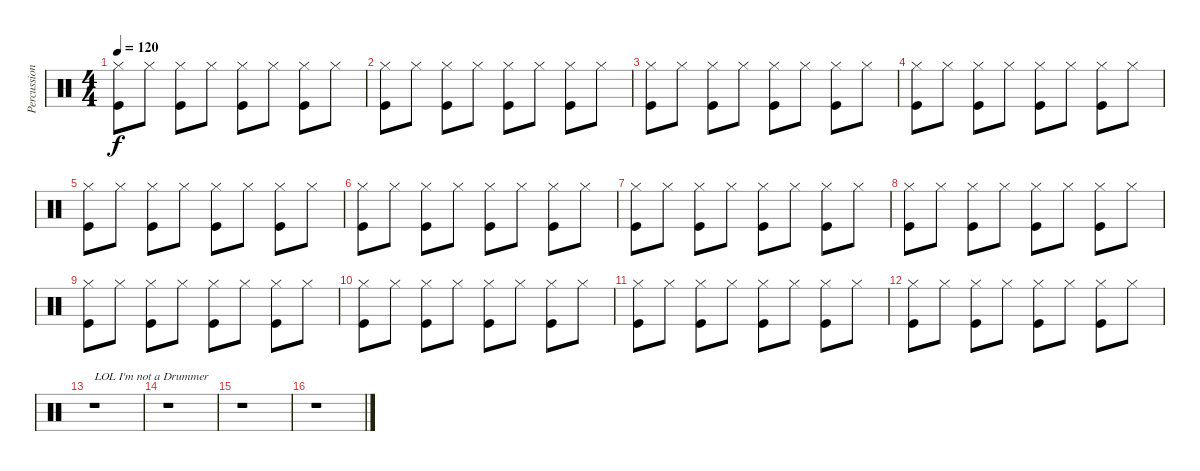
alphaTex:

\track ("Percussion" "Percussion") {instrument percussion}
\staff {score}
\articulation defaults
\ts (4 4)
\tempo 120
\clef neutral
\ks c
("Kick (hit)" "Hi-Hat (closed)").8{dy f} "Hi-Hat (closed)".8 ("Kick (hit)" "Hi-Hat (closed)").8 "Hi-Hat (closed)".8 ("Kick (hit)" "Hi-Hat (closed)").8 "Hi-Hat (closed)".8 ("Kick (hit)" "Hi-Hat (closed)").8 "Hi-Hat (closed)".8 |
("Kick (hit)" "Hi-Hat (closed)").8 "Hi-Hat (closed)".8 ("Kick (hit)" "Hi-Hat (closed)").8 "Hi-Hat (closed)".8 ("Kick (hit)" "Hi-Hat (closed)").8 "Hi-Hat (closed)".8 ("Kick (hit)" "Hi-Hat (closed)").8 "Hi-Hat (closed)".8 |
("Kick (hit)" "Hi-Hat (closed)").8 "Hi-Hat (closed)".8 ("Kick (hit)" "Hi-Hat (closed)").8 "Hi-Hat (closed)".8 ("Kick (hit)" "Hi-Hat (closed)").8 "Hi-Hat (closed)".8 ("Kick (hit)" "Hi-Hat (closed)").8 "Hi-Hat (closed)".8 |
("Kick (hit)" "Hi-Hat (closed)").8 "Hi-Hat (closed)".8 ("Kick (hit)" "Hi-Hat (closed)").8 "Hi-Hat (closed)".8 ("Kick (hit)" "Hi-Hat (closed)").8 "Hi-Hat (closed)".8 ("Kick (hit)" "Hi-Hat (closed)").8 "Hi-Hat (closed)".8 |
("Kick (hit)" "Hi-Hat (closed)").8 "Hi-Hat (closed)".8 ("Kick (hit)" "Hi-Hat (closed)").8 "Hi-Hat (closed)".8 ("Kick (hit)" "Hi-Hat (closed)").8 "Hi-Hat (closed)".8 ("Kick (hit)" "Hi-Hat (closed)").8 "Hi-Hat (closed)".8 |
("Kick (hit)" "Hi-Hat (closed)").8 "Hi-Hat (closed)".8 ("Kick (hit)" "Hi-Hat (closed)").8 "Hi-Hat (closed)".8 ("Kick (hit)" "Hi-Hat (closed)").8 "Hi-Hat (closed)".8 ("Kick (hit)" "Hi-Hat (closed)").8 "Hi-Hat (closed)".8 |
("Kick (hit)" "Hi-Hat (closed)").8 "Hi-Hat (closed)".8 ("Kick (hit)" "Hi-Hat (closed)").8 "Hi-Hat (closed)".8 ("Kick (hit)" "Hi-Hat (closed)").8 "Hi-Hat (closed)".8 ("Kick (hit)" "Hi-Hat (closed)").8 "Hi-Hat (closed)".8 |
("Kick (hit)" "Hi-Hat (closed)").8 "Hi-Hat (closed)".8 ("Kick (hit)" "Hi-Hat (closed)").8 "Hi-Hat (closed)".8 ("Kick (hit)" "Hi-Hat (closed)").8 "Hi-Hat (closed)".8 ("Kick (hit)" "Hi-Hat (closed)").8 "Hi-Hat (closed)".8 |
("Kick (hit)" "Hi-Hat (closed)").8 "Hi-Hat (closed)".8 ("Kick (hit)" "Hi-Hat (closed)").8 "Hi-Hat (closed)".8 ("Kick (hit)" "Hi-Hat (closed)").8 "Hi-Hat (closed)".8 ("Kick (hit)" "Hi-Hat (closed)").8 "Hi-Hat (closed)".8 |
("Kick (hit)" "Hi-Hat (closed)").8 "Hi-Hat (closed)".8 ("Kick (hit)" "Hi-Hat (closed)").8 "Hi-Hat (closed)".8 ("Kick (hit)" "Hi-Hat (closed)").8 "Hi-Hat (closed)".8 ("Kick (hit)" "Hi-Hat (closed)").8 "Hi-Hat (closed)".8 |
("Kick (hit)" "Hi-Hat (closed)").8 "Hi-Hat (closed)".8 ("Kick (hit)" "Hi-Hat (closed)").8 "Hi-Hat (closed)".8 ("Kick (hit)" "Hi-Hat (closed)").8 "Hi-Hat (closed)".8 ("Kick (hit)" "Hi-Hat (closed)").8 "Hi-Hat (closed)".8 |
("Kick (hit)" "Hi-Hat (closed)").8 "Hi-Hat (closed)".8 ("Kick (hit)" "Hi-Hat (closed)").8 "Hi-Hat (closed)".8 ("Kick (hit)" "Hi-Hat (closed)").8 "Hi-Hat (closed)".8 ("Kick (hit)" "Hi-Hat (closed)").8 "Hi-Hat (closed)".8 |
r.1{txt "LOL I'm not a Drummer"} |
r.1 |
r.1 |
r.1
